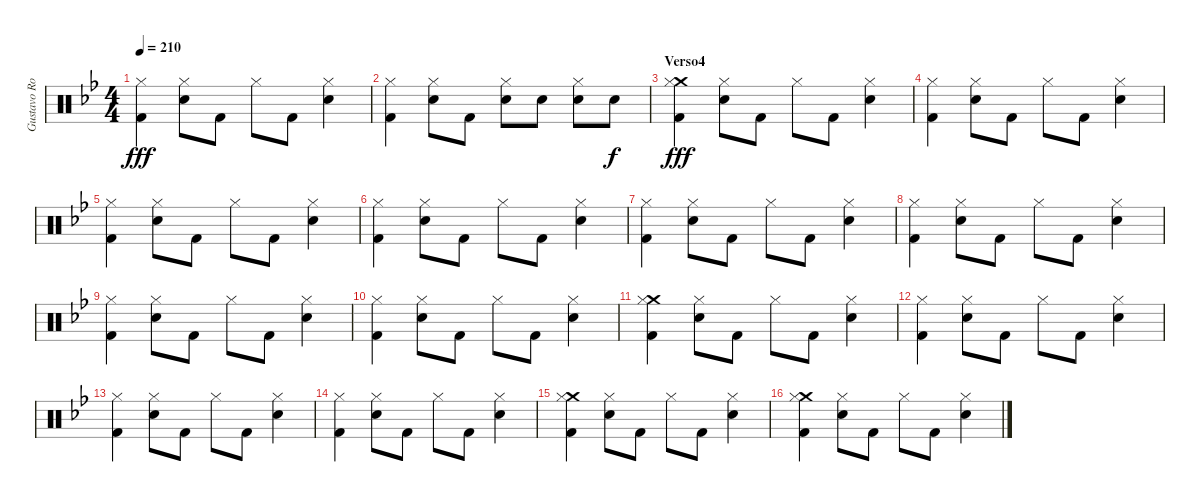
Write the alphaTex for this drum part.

\track ("Gustavo Rowek" "Gustavo Ro") {instrument percussion}
\staff {score}
\articulation defaults
\ts (4 4)
\tempo 210
\clef neutral
\ks gminor
("Hi-Hat (closed)" "Kick (hit) 2").4{dy fff} ("Hi-Hat (closed)" "Snare (hit) 2").8 "Kick (hit) 2".8 "Hi-Hat (closed)".8 "Kick (hit) 2".8 ("Hi-Hat (closed)" "Snare (hit) 2").4 |
("Hi-Hat (closed)" "Kick (hit) 2").4 ("Hi-Hat (closed)" "Snare (hit) 2").8 "Kick (hit) 2".8 ("Hi-Hat (closed)" "Snare (hit) 2").8 "Snare (hit) 2".8 ("Hi-Hat (closed)" "Snare (hit) 2").8 "Snare (hit) 2".8{dy f} |
\section ("" "Verso4")
("Crash medium (hit)" "Hi-Hat (closed)" "Kick (hit) 2").4{dy fff} ("Hi-Hat (closed)" "Snare (hit) 2").8 "Kick (hit) 2".8 "Hi-Hat (closed)".8 "Kick (hit) 2".8 ("Hi-Hat (closed)" "Snare (hit) 2").4 |
("Hi-Hat (closed)" "Kick (hit) 2").4 ("Hi-Hat (closed)" "Snare (hit) 2").8 "Kick (hit) 2".8 "Hi-Hat (closed)".8 "Kick (hit) 2".8 ("Hi-Hat (closed)" "Snare (hit) 2").4 |
("Hi-Hat (closed)" "Kick (hit) 2").4 ("Hi-Hat (closed)" "Snare (hit) 2").8 "Kick (hit) 2".8 "Hi-Hat (closed)".8 "Kick (hit) 2".8 ("Hi-Hat (closed)" "Snare (hit) 2").4 |
("Hi-Hat (closed)" "Kick (hit) 2").4 ("Hi-Hat (closed)" "Snare (hit) 2").8 "Kick (hit) 2".8 "Hi-Hat (closed)".8 "Kick (hit) 2".8 ("Hi-Hat (closed)" "Snare (hit) 2").4 |
("Hi-Hat (closed)" "Kick (hit) 2").4 ("Hi-Hat (closed)" "Snare (hit) 2").8 "Kick (hit) 2".8 "Hi-Hat (closed)".8 "Kick (hit) 2".8 ("Hi-Hat (closed)" "Snare (hit) 2").4 |
("Hi-Hat (closed)" "Kick (hit) 2").4 ("Hi-Hat (closed)" "Snare (hit) 2").8 "Kick (hit) 2".8 "Hi-Hat (closed)".8 "Kick (hit) 2".8 ("Hi-Hat (closed)" "Snare (hit) 2").4 |
("Hi-Hat (closed)" "Kick (hit) 2").4 ("Hi-Hat (closed)" "Snare (hit) 2").8 "Kick (hit) 2".8 "Hi-Hat (closed)".8 "Kick (hit) 2".8 ("Hi-Hat (closed)" "Snare (hit) 2").4 |
("Hi-Hat (closed)" "Kick (hit) 2").4 ("Hi-Hat (closed)" "Snare (hit) 2").8 "Kick (hit) 2".8 "Hi-Hat (closed)".8 "Kick (hit) 2".8 ("Hi-Hat (closed)" "Snare (hit) 2").4 |
("Crash medium (hit)" "Hi-Hat (closed)" "Kick (hit) 2").4 ("Hi-Hat (closed)" "Snare (hit) 2").8 "Kick (hit) 2".8 "Hi-Hat (closed)".8 "Kick (hit) 2".8 ("Hi-Hat (closed)" "Snare (hit) 2").4 |
("Hi-Hat (closed)" "Kick (hit) 2").4 ("Hi-Hat (closed)" "Snare (hit) 2").8 "Kick (hit) 2".8 "Hi-Hat (closed)".8 "Kick (hit) 2".8 ("Hi-Hat (closed)" "Snare (hit) 2").4 |
("Hi-Hat (closed)" "Kick (hit) 2").4 ("Hi-Hat (closed)" "Snare (hit) 2").8 "Kick (hit) 2".8 "Hi-Hat (closed)".8 "Kick (hit) 2".8 ("Hi-Hat (closed)" "Snare (hit) 2").4 |
("Hi-Hat (closed)" "Kick (hit) 2").4 ("Hi-Hat (closed)" "Snare (hit) 2").8 "Kick (hit) 2".8 "Hi-Hat (closed)".8 "Kick (hit) 2".8 ("Hi-Hat (closed)" "Snare (hit) 2").4 |
("Crash medium (hit)" "Hi-Hat (closed)" "Kick (hit) 2").4 ("Hi-Hat (closed)" "Snare (hit) 2").8 "Kick (hit) 2".8 "Hi-Hat (closed)".8 "Kick (hit) 2".8 ("Hi-Hat (closed)" "Snare (hit) 2").4 |
("Crash medium (hit)" "Hi-Hat (closed)" "Kick (hit) 2").4 ("Hi-Hat (closed)" "Snare (hit) 2").8 "Kick (hit) 2".8 "Hi-Hat (closed)".8 "Kick (hit) 2".8 ("Hi-Hat (closed)" "Snare (hit) 2").4
